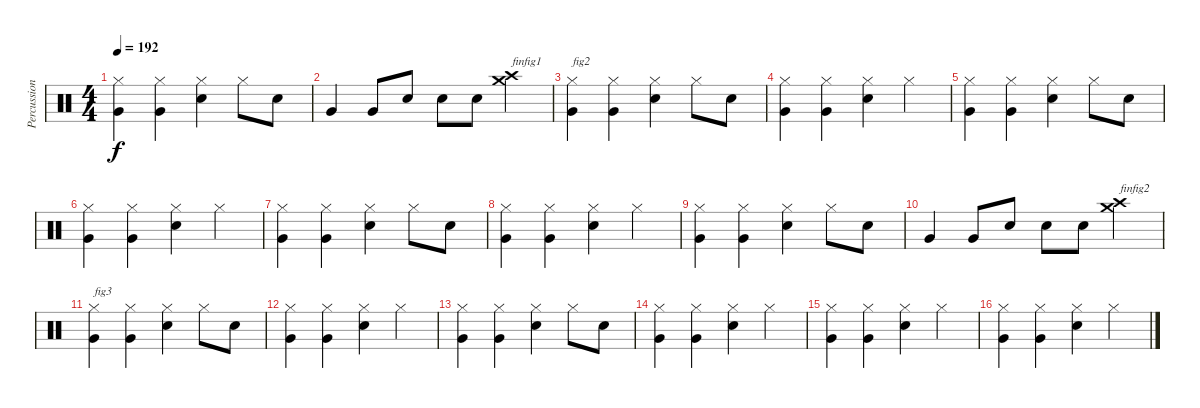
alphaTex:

\track ("Percussions" "Percussion") {instrument percussion}
\staff {score}
\articulation defaults
\ts (4 4)
\tempo 192
\clef neutral
\ks c
("Very Low Tom (hit)" "Hi-Hat (closed)").4{dy f} ("Very Low Tom (hit)" "Hi-Hat (closed)").4 ("Snare (hit) 2" "Hi-Hat (closed)").4 "Hi-Hat (closed)".8 "Snare (hit) 2".8 |
"Very Low Tom (hit)".4 "Very Low Tom (hit)".8 "Snare (hit) 2".8 "Snare (hit) 2".8 "Snare (hit) 2".8 ("Crash high (hit)" "Crash medium (hit)").4{txt "finfig1"} |
("Very Low Tom (hit)" "Hi-Hat (closed)").4{txt "fig2"} ("Very Low Tom (hit)" "Hi-Hat (closed)").4 ("Snare (hit) 2" "Hi-Hat (closed)").4 "Hi-Hat (closed)".8 "Snare (hit) 2".8 |
("Very Low Tom (hit)" "Hi-Hat (closed)").4 ("Very Low Tom (hit)" "Hi-Hat (closed)").4 ("Snare (hit) 2" "Hi-Hat (closed)").4 "Hi-Hat (closed)".4 |
("Very Low Tom (hit)" "Hi-Hat (closed)").4 ("Very Low Tom (hit)" "Hi-Hat (closed)").4 ("Snare (hit) 2" "Hi-Hat (closed)").4 "Hi-Hat (closed)".8 "Snare (hit) 2".8 |
("Very Low Tom (hit)" "Hi-Hat (closed)").4 ("Very Low Tom (hit)" "Hi-Hat (closed)").4 ("Snare (hit) 2" "Hi-Hat (closed)").4 "Hi-Hat (closed)".4 |
("Very Low Tom (hit)" "Hi-Hat (closed)").4 ("Very Low Tom (hit)" "Hi-Hat (closed)").4 ("Snare (hit) 2" "Hi-Hat (closed)").4 "Hi-Hat (closed)".8 "Snare (hit) 2".8 |
("Very Low Tom (hit)" "Hi-Hat (closed)").4 ("Very Low Tom (hit)" "Hi-Hat (closed)").4 ("Snare (hit) 2" "Hi-Hat (closed)").4 "Hi-Hat (closed)".4 |
("Very Low Tom (hit)" "Hi-Hat (closed)").4 ("Very Low Tom (hit)" "Hi-Hat (closed)").4 ("Snare (hit) 2" "Hi-Hat (closed)").4 "Hi-Hat (closed)".8 "Snare (hit) 2".8 |
"Very Low Tom (hit)".4 "Very Low Tom (hit)".8 "Snare (hit) 2".8 "Snare (hit) 2".8 "Snare (hit) 2".8 ("Crash high (hit)" "Crash medium (hit)").4{txt "finfig2"} |
("Very Low Tom (hit)" "Hi-Hat (closed)").4{txt "fig3"} ("Very Low Tom (hit)" "Hi-Hat (closed)").4 ("Snare (hit) 2" "Hi-Hat (closed)").4 "Hi-Hat (closed)".8 "Snare (hit) 2".8 |
("Very Low Tom (hit)" "Hi-Hat (closed)").4 ("Very Low Tom (hit)" "Hi-Hat (closed)").4 ("Snare (hit) 2" "Hi-Hat (closed)").4 "Hi-Hat (closed)".4 |
("Very Low Tom (hit)" "Hi-Hat (closed)").4 ("Very Low Tom (hit)" "Hi-Hat (closed)").4 ("Snare (hit) 2" "Hi-Hat (closed)").4 "Hi-Hat (closed)".8 "Snare (hit) 2".8 |
("Very Low Tom (hit)" "Hi-Hat (closed)").4 ("Very Low Tom (hit)" "Hi-Hat (closed)").4 ("Snare (hit) 2" "Hi-Hat (closed)").4 "Hi-Hat (closed)".4 |
("Very Low Tom (hit)" "Hi-Hat (closed)").4 ("Very Low Tom (hit)" "Hi-Hat (closed)").4 ("Snare (hit) 2" "Hi-Hat (closed)").4 "Hi-Hat (closed)".4 |
("Very Low Tom (hit)" "Hi-Hat (closed)").4 ("Very Low Tom (hit)" "Hi-Hat (closed)").4 ("Snare (hit) 2" "Hi-Hat (closed)").4 "Hi-Hat (closed)".4
